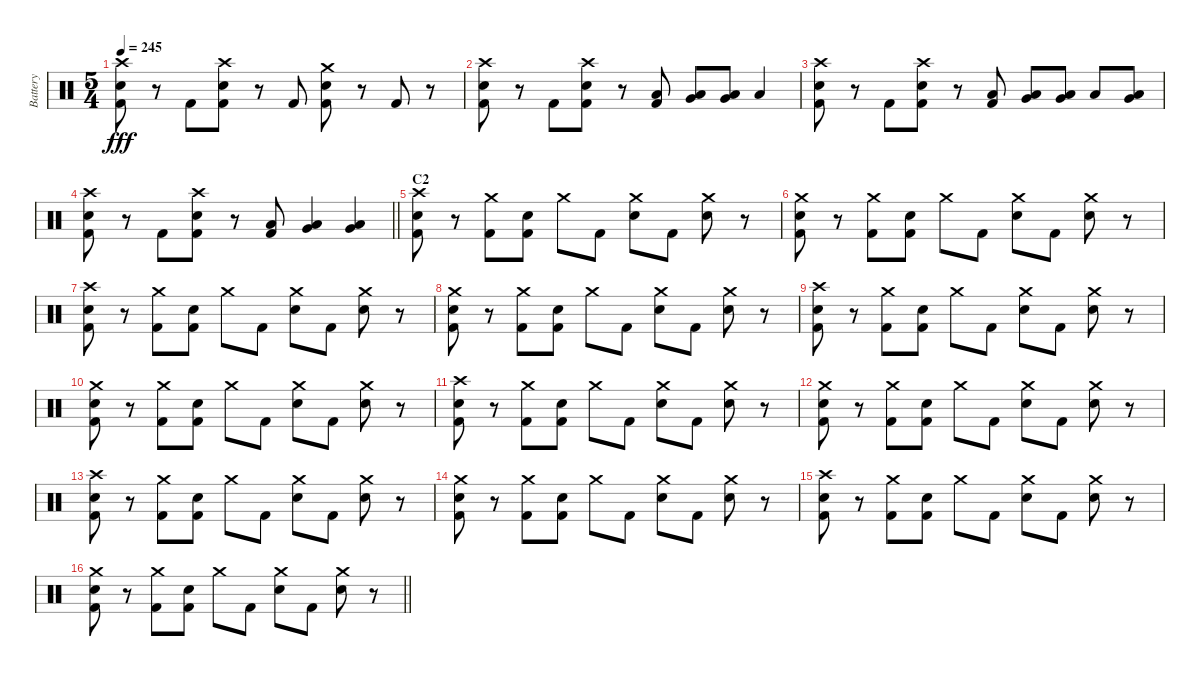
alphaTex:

\track ("Battery" "Battery") {instrument percussion}
\staff {score}
\articulation defaults
\ts (5 4)
\tempo 245
\clef neutral
\ks c
("Crash high (hit)" "Electric Snare (hit)" "Kick (hit) 2").8{dy fff} r.8 "Kick (hit) 2".8 ("Crash high (hit)" "Electric Snare (hit)" "Kick (hit) 2").8 r.8 "Kick (hit) 2".8 ("Crash medium (hit)" "Electric Snare (hit)" "Kick (hit) 2").8 r.8 "Kick (hit) 2".8 r.8 |
("Crash high (hit)" "Electric Snare (hit)" "Kick (hit) 2").8 r.8 "Kick (hit) 2".8 ("Crash high (hit)" "Electric Snare (hit)" "Kick (hit) 2").8 r.8 ("Low Floor Tom (hit)" "Kick (hit) 2").8 ("Low Tom (hit)" "Very Low Tom (hit)").8 ("Very Low Tom (hit)" "Low Floor Tom (hit)").8 "Low Floor Tom (hit)".4 |
("Crash high (hit)" "Electric Snare (hit)" "Kick (hit) 2").8 r.8 "Kick (hit) 2".8 ("Crash high (hit)" "Electric Snare (hit)" "Kick (hit) 2").8 r.8 ("Low Floor Tom (hit)" "Kick (hit) 2").8 ("Low Tom (hit)" "Very Low Tom (hit)").8 ("Very Low Tom (hit)" "Low Floor Tom (hit)").8 "Low Floor Tom (hit)".8 ("Very Low Tom (hit)" "Low Floor Tom (hit)").8 |
\barLineRight lightlight
("Crash high (hit)" "Electric Snare (hit)" "Kick (hit) 2").8 r.8 "Kick (hit) 2".8 ("Crash high (hit)" "Electric Snare (hit)" "Kick (hit) 2").8 r.8 ("Low Floor Tom (hit)" "Kick (hit) 2").8 ("Very Low Tom (hit)" "Low Floor Tom (hit)").4 ("Very Low Tom (hit)" "Low Floor Tom (hit)").4 |
\section ("" "C2")
("Crash high (hit)" "Electric Snare (hit)" "Kick (hit) 2").8 r.8 ("Crash medium (hit)" "Kick (hit) 2").8 ("Electric Snare (hit)" "Kick (hit) 2").8 "Crash medium (hit)".8 "Kick (hit) 2".8 ("Crash medium (hit)" "Electric Snare (hit)").8 "Kick (hit) 2".8 ("Crash medium (hit)" "Electric Snare (hit)").8 r.8 |
("Crash medium (hit)" "Electric Snare (hit)" "Kick (hit) 2").8 r.8 ("Crash medium (hit)" "Kick (hit) 2").8 ("Electric Snare (hit)" "Kick (hit) 2").8 "Crash medium (hit)".8 "Kick (hit) 2".8 ("Crash medium (hit)" "Electric Snare (hit)").8 "Kick (hit) 2".8 ("Crash medium (hit)" "Electric Snare (hit)").8 r.8 |
("Crash high (hit)" "Electric Snare (hit)" "Kick (hit) 2").8 r.8 ("Crash medium (hit)" "Kick (hit) 2").8 ("Electric Snare (hit)" "Kick (hit) 2").8 "Crash medium (hit)".8 "Kick (hit) 2".8 ("Crash medium (hit)" "Electric Snare (hit)").8 "Kick (hit) 2".8 ("Crash medium (hit)" "Electric Snare (hit)").8 r.8 |
("Crash medium (hit)" "Electric Snare (hit)" "Kick (hit) 2").8 r.8 ("Crash medium (hit)" "Kick (hit) 2").8 ("Electric Snare (hit)" "Kick (hit) 2").8 "Crash medium (hit)".8 "Kick (hit) 2".8 ("Crash medium (hit)" "Electric Snare (hit)").8 "Kick (hit) 2".8 ("Crash medium (hit)" "Electric Snare (hit)").8 r.8 |
("Crash high (hit)" "Electric Snare (hit)" "Kick (hit) 2").8 r.8 ("Crash medium (hit)" "Kick (hit) 2").8 ("Electric Snare (hit)" "Kick (hit) 2").8 "Crash medium (hit)".8 "Kick (hit) 2".8 ("Crash medium (hit)" "Electric Snare (hit)").8 "Kick (hit) 2".8 ("Crash medium (hit)" "Electric Snare (hit)").8 r.8 |
("Crash medium (hit)" "Electric Snare (hit)" "Kick (hit) 2").8 r.8 ("Crash medium (hit)" "Kick (hit) 2").8 ("Electric Snare (hit)" "Kick (hit) 2").8 "Crash medium (hit)".8 "Kick (hit) 2".8 ("Crash medium (hit)" "Electric Snare (hit)").8 "Kick (hit) 2".8 ("Crash medium (hit)" "Electric Snare (hit)").8 r.8 |
("Crash high (hit)" "Electric Snare (hit)" "Kick (hit) 2").8 r.8 ("Crash medium (hit)" "Kick (hit) 2").8 ("Electric Snare (hit)" "Kick (hit) 2").8 "Crash medium (hit)".8 "Kick (hit) 2".8 ("Crash medium (hit)" "Electric Snare (hit)").8 "Kick (hit) 2".8 ("Crash medium (hit)" "Electric Snare (hit)").8 r.8 |
("Crash medium (hit)" "Electric Snare (hit)" "Kick (hit) 2").8 r.8 ("Crash medium (hit)" "Kick (hit) 2").8 ("Electric Snare (hit)" "Kick (hit) 2").8 "Crash medium (hit)".8 "Kick (hit) 2".8 ("Crash medium (hit)" "Electric Snare (hit)").8 "Kick (hit) 2".8 ("Crash medium (hit)" "Electric Snare (hit)").8 r.8 |
("Crash high (hit)" "Electric Snare (hit)" "Kick (hit) 2").8 r.8 ("Crash medium (hit)" "Kick (hit) 2").8 ("Electric Snare (hit)" "Kick (hit) 2").8 "Crash medium (hit)".8 "Kick (hit) 2".8 ("Crash medium (hit)" "Electric Snare (hit)").8 "Kick (hit) 2".8 ("Crash medium (hit)" "Electric Snare (hit)").8 r.8 |
("Crash medium (hit)" "Electric Snare (hit)" "Kick (hit) 2").8 r.8 ("Crash medium (hit)" "Kick (hit) 2").8 ("Electric Snare (hit)" "Kick (hit) 2").8 "Crash medium (hit)".8 "Kick (hit) 2".8 ("Crash medium (hit)" "Electric Snare (hit)").8 "Kick (hit) 2".8 ("Crash medium (hit)" "Electric Snare (hit)").8 r.8 |
("Crash high (hit)" "Electric Snare (hit)" "Kick (hit) 2").8 r.8 ("Crash medium (hit)" "Kick (hit) 2").8 ("Electric Snare (hit)" "Kick (hit) 2").8 "Crash medium (hit)".8 "Kick (hit) 2".8 ("Crash medium (hit)" "Electric Snare (hit)").8 "Kick (hit) 2".8 ("Crash medium (hit)" "Electric Snare (hit)").8 r.8 |
\barLineRight lightlight
("Crash medium (hit)" "Electric Snare (hit)" "Kick (hit) 2").8 r.8 ("Crash medium (hit)" "Kick (hit) 2").8 ("Electric Snare (hit)" "Kick (hit) 2").8 "Crash medium (hit)".8 "Kick (hit) 2".8 ("Crash medium (hit)" "Electric Snare (hit)").8 "Kick (hit) 2".8 ("Crash medium (hit)" "Electric Snare (hit)").8 r.8
